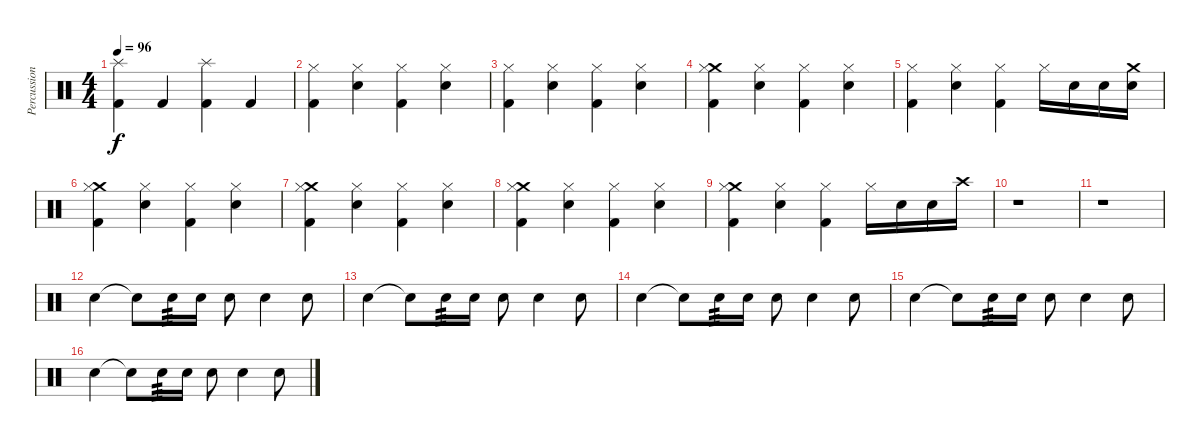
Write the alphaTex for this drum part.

\track ("Percussion" "Percussion") {instrument percussion}
\staff {score}
\articulation defaults
\ts (4 4)
\tempo 96
\clef neutral
\ks c
("Splash (hit)" "Kick (hit) 2").4{dy f} "Kick (hit) 2".4 ("Splash (hit)" "Kick (hit) 2").4 "Kick (hit) 2".4 |
("Hi-Hat (closed)" "Kick (hit) 2").4 ("Hi-Hat (closed)" "Electric Snare (hit)").4 ("Hi-Hat (closed)" "Kick (hit) 2").4 ("Hi-Hat (closed)" "Electric Snare (hit)").4 |
("Hi-Hat (closed)" "Kick (hit) 2").4 ("Hi-Hat (closed)" "Electric Snare (hit)").4 ("Hi-Hat (closed)" "Kick (hit) 2").4 ("Hi-Hat (closed)" "Electric Snare (hit)").4 |
("Crash medium (hit)" "Hi-Hat (closed)" "Kick (hit) 2").4 ("Hi-Hat (closed)" "Electric Snare (hit)").4 ("Hi-Hat (closed)" "Kick (hit) 2").4 ("Hi-Hat (closed)" "Electric Snare (hit)").4 |
("Hi-Hat (closed)" "Kick (hit) 2").4 ("Hi-Hat (closed)" "Electric Snare (hit)").4 ("Hi-Hat (closed)" "Kick (hit) 2").4 "Hi-Hat (closed)".16 "Electric Snare (hit)".16 "Electric Snare (hit)".16 ("Crash medium (hit)" "Electric Snare (hit)").16 |
("Crash medium (hit)" "Hi-Hat (closed)" "Kick (hit) 2").4 ("Hi-Hat (closed)" "Electric Snare (hit)").4 ("Hi-Hat (closed)" "Kick (hit) 2").4 ("Hi-Hat (closed)" "Electric Snare (hit)").4 |
("Crash medium (hit)" "Hi-Hat (closed)" "Kick (hit) 2").4 ("Hi-Hat (closed)" "Electric Snare (hit)").4 ("Hi-Hat (closed)" "Kick (hit) 2").4 ("Hi-Hat (closed)" "Electric Snare (hit)").4 |
("Crash medium (hit)" "Hi-Hat (closed)" "Kick (hit) 2").4 ("Hi-Hat (closed)" "Electric Snare (hit)").4 ("Hi-Hat (closed)" "Kick (hit) 2").4 ("Hi-Hat (closed)" "Electric Snare (hit)").4 |
("Crash medium (hit)" "Hi-Hat (closed)" "Kick (hit) 2").4 ("Hi-Hat (closed)" "Electric Snare (hit)").4 ("Hi-Hat (closed)" "Kick (hit) 2").4 "Hi-Hat (closed)".16 "Electric Snare (hit)".16 "Electric Snare (hit)".16 "Crash high (hit)".16 |
r.1 |
r.1 |
"Electric Snare (hit)".4 "Electric Snare (hit)"{t}.8 "Electric Snare (hit)".16{tp 3} "Electric Snare (hit)".16 "Electric Snare (hit)".8 "Electric Snare (hit)".4 "Electric Snare (hit)".8 |
"Electric Snare (hit)".4 "Electric Snare (hit)"{t}.8 "Electric Snare (hit)".16{tp 3} "Electric Snare (hit)".16 "Electric Snare (hit)".8 "Electric Snare (hit)".4 "Electric Snare (hit)".8 |
"Electric Snare (hit)".4 "Electric Snare (hit)"{t}.8 "Electric Snare (hit)".16{tp 3} "Electric Snare (hit)".16 "Electric Snare (hit)".8 "Electric Snare (hit)".4 "Electric Snare (hit)".8 |
"Electric Snare (hit)".4 "Electric Snare (hit)"{t}.8 "Electric Snare (hit)".16{tp 3} "Electric Snare (hit)".16 "Electric Snare (hit)".8 "Electric Snare (hit)".4 "Electric Snare (hit)".8 |
"Electric Snare (hit)".4 "Electric Snare (hit)"{t}.8 "Electric Snare (hit)".16{tp 3} "Electric Snare (hit)".16 "Electric Snare (hit)".8 "Electric Snare (hit)".4 "Electric Snare (hit)".8
